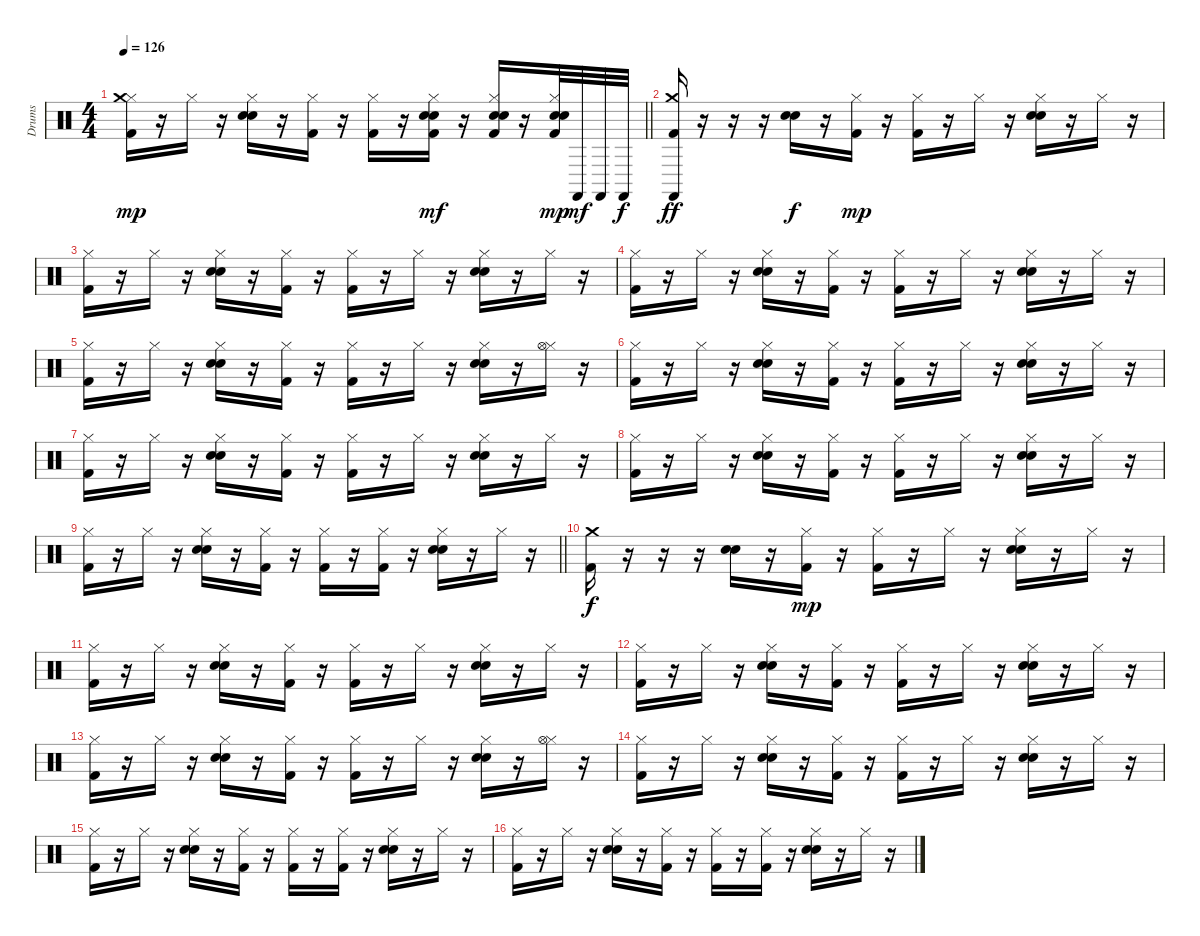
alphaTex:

\track ("Drums" "Drums") {instrument percussion}
\staff {score}
\articulation defaults
\ts (4 4)
\tempo 126
\clef neutral
\barLineRight lightlight
\ks c
("Hi-Hat (closed)" "Crash medium (hit)" "Kick (hit) 2").16{dy mp} r.16 "Hi-Hat (closed)".16 r.16 ("Hi-Hat (closed)" "Snare (hit) 2" "Electric Snare (hit)").16 r.16 ("Hi-Hat (closed)" "Kick (hit) 2").16 r.16 ("Hi-Hat (closed)" "Kick (hit) 2").16 r.16 ("Hi-Hat (closed)" "Snare (hit) 2" "Electric Snare (hit)" "Kick (hit) 2").16{dy mf} r.16 ("Hi-Hat (closed)" "Snare (hit) 2" "Electric Snare (hit)" "Kick (hit) 2").16 r.16 ("Hi-Hat (closed)" "Snare (hit) 2" "Electric Snare (hit)" "Kick (hit) 2").32{dy mp} "Castanets (hit)".32{dy mf} "Castanets (hit)".32 "Castanets (hit)".32{dy f} |
\section ("" "")
("Crash medium (hit)" "Castanets (hit)" "Kick (hit) 2").16{dy ff} r.16 r.16 r.16 ("Snare (hit) 2" "Electric Snare (hit)").16{dy f} r.16 ("Hi-Hat (closed)" "Kick (hit) 2").16{dy mp} r.16 ("Hi-Hat (closed)" "Kick (hit) 2").16 r.16 "Hi-Hat (closed)".16 r.16 ("Hi-Hat (closed)" "Snare (hit) 2" "Electric Snare (hit)").16 r.16 "Hi-Hat (closed)".16 r.16 |
("Hi-Hat (closed)" "Kick (hit) 2").16 r.16 "Hi-Hat (closed)".16 r.16 ("Hi-Hat (closed)" "Snare (hit) 2" "Electric Snare (hit)").16 r.16 ("Hi-Hat (closed)" "Kick (hit) 2").16 r.16 ("Hi-Hat (closed)" "Kick (hit) 2").16 r.16 "Hi-Hat (closed)".16 r.16 ("Hi-Hat (closed)" "Snare (hit) 2" "Electric Snare (hit)").16 r.16 "Hi-Hat (closed)".16 r.16 |
("Hi-Hat (closed)" "Kick (hit) 2").16 r.16 "Hi-Hat (closed)".16 r.16 ("Hi-Hat (closed)" "Snare (hit) 2" "Electric Snare (hit)").16 r.16 ("Hi-Hat (closed)" "Kick (hit) 2").16 r.16 ("Hi-Hat (closed)" "Kick (hit) 2").16 r.16 "Hi-Hat (closed)".16 r.16 ("Hi-Hat (closed)" "Snare (hit) 2" "Electric Snare (hit)").16 r.16 "Hi-Hat (closed)".16 r.16 |
("Hi-Hat (closed)" "Kick (hit) 2").16 r.16 "Hi-Hat (closed)".16 r.16 ("Hi-Hat (closed)" "Snare (hit) 2" "Electric Snare (hit)").16 r.16 ("Hi-Hat (closed)" "Kick (hit) 2").16 r.16 ("Hi-Hat (closed)" "Kick (hit) 2").16 r.16 "Hi-Hat (closed)".16 r.16 ("Hi-Hat (closed)" "Snare (hit) 2" "Electric Snare (hit)").16 r.16 ("Hi-Hat (closed)" "Hi-Hat (open)").16 r.16 |
("Hi-Hat (closed)" "Kick (hit) 2").16 r.16 "Hi-Hat (closed)".16 r.16 ("Hi-Hat (closed)" "Snare (hit) 2" "Electric Snare (hit)").16 r.16 ("Hi-Hat (closed)" "Kick (hit) 2").16 r.16 ("Hi-Hat (closed)" "Kick (hit) 2").16 r.16 "Hi-Hat (closed)".16 r.16 ("Hi-Hat (closed)" "Snare (hit) 2" "Electric Snare (hit)").16 r.16 "Hi-Hat (closed)".16 r.16 |
("Hi-Hat (closed)" "Kick (hit) 2").16 r.16 "Hi-Hat (closed)".16 r.16 ("Hi-Hat (closed)" "Snare (hit) 2" "Electric Snare (hit)").16 r.16 ("Hi-Hat (closed)" "Kick (hit) 2").16 r.16 ("Hi-Hat (closed)" "Kick (hit) 2").16 r.16 "Hi-Hat (closed)".16 r.16 ("Hi-Hat (closed)" "Snare (hit) 2" "Electric Snare (hit)").16 r.16 "Hi-Hat (closed)".16 r.16 |
("Hi-Hat (closed)" "Kick (hit) 2").16 r.16 "Hi-Hat (closed)".16 r.16 ("Hi-Hat (closed)" "Snare (hit) 2" "Electric Snare (hit)").16 r.16 ("Hi-Hat (closed)" "Kick (hit) 2").16 r.16 ("Hi-Hat (closed)" "Kick (hit) 2").16 r.16 "Hi-Hat (closed)".16 r.16 ("Hi-Hat (closed)" "Snare (hit) 2" "Electric Snare (hit)").16 r.16 "Hi-Hat (closed)".16 r.16 |
\barLineRight lightlight
("Hi-Hat (closed)" "Kick (hit) 2").16 r.16 "Hi-Hat (closed)".16 r.16 ("Hi-Hat (closed)" "Snare (hit) 2" "Electric Snare (hit)").16 r.16 ("Hi-Hat (closed)" "Kick (hit) 2").16 r.16 ("Hi-Hat (closed)" "Kick (hit) 2").16 r.16 ("Hi-Hat (closed)" "Kick (hit) 2").16 r.16 ("Hi-Hat (closed)" "Snare (hit) 2" "Electric Snare (hit)").16 r.16 "Hi-Hat (closed)".16 r.16 |
\section ("" "")
("Crash medium (hit)" "Kick (hit) 2").16{dy f} r.16 r.16 r.16 ("Snare (hit) 2" "Electric Snare (hit)").16 r.16 ("Hi-Hat (closed)" "Kick (hit) 2").16{dy mp} r.16 ("Hi-Hat (closed)" "Kick (hit) 2").16 r.16 "Hi-Hat (closed)".16 r.16 ("Hi-Hat (closed)" "Snare (hit) 2" "Electric Snare (hit)").16 r.16 "Hi-Hat (closed)".16 r.16 |
("Hi-Hat (closed)" "Kick (hit) 2").16 r.16 "Hi-Hat (closed)".16 r.16 ("Hi-Hat (closed)" "Snare (hit) 2" "Electric Snare (hit)").16 r.16 ("Hi-Hat (closed)" "Kick (hit) 2").16 r.16 ("Hi-Hat (closed)" "Kick (hit) 2").16 r.16 "Hi-Hat (closed)".16 r.16 ("Hi-Hat (closed)" "Snare (hit) 2" "Electric Snare (hit)").16 r.16 "Hi-Hat (closed)".16 r.16 |
("Hi-Hat (closed)" "Kick (hit) 2").16 r.16 "Hi-Hat (closed)".16 r.16 ("Hi-Hat (closed)" "Snare (hit) 2" "Electric Snare (hit)").16 r.16 ("Hi-Hat (closed)" "Kick (hit) 2").16 r.16 ("Hi-Hat (closed)" "Kick (hit) 2").16 r.16 "Hi-Hat (closed)".16 r.16 ("Hi-Hat (closed)" "Snare (hit) 2" "Electric Snare (hit)").16 r.16 "Hi-Hat (closed)".16 r.16 |
("Hi-Hat (closed)" "Kick (hit) 2").16 r.16 "Hi-Hat (closed)".16 r.16 ("Hi-Hat (closed)" "Snare (hit) 2" "Electric Snare (hit)").16 r.16 ("Hi-Hat (closed)" "Kick (hit) 2").16 r.16 ("Hi-Hat (closed)" "Kick (hit) 2").16 r.16 "Hi-Hat (closed)".16 r.16 ("Hi-Hat (closed)" "Snare (hit) 2" "Electric Snare (hit)").16 r.16 ("Hi-Hat (closed)" "Hi-Hat (open)").16 r.16 |
("Hi-Hat (closed)" "Kick (hit) 2").16 r.16 "Hi-Hat (closed)".16 r.16 ("Hi-Hat (closed)" "Snare (hit) 2" "Electric Snare (hit)").16 r.16 ("Hi-Hat (closed)" "Kick (hit) 2").16 r.16 ("Hi-Hat (closed)" "Kick (hit) 2").16 r.16 "Hi-Hat (closed)".16 r.16 ("Hi-Hat (closed)" "Snare (hit) 2" "Electric Snare (hit)").16 r.16 "Hi-Hat (closed)".16 r.16 |
("Hi-Hat (closed)" "Kick (hit) 2").16 r.16 "Hi-Hat (closed)".16 r.16 ("Hi-Hat (closed)" "Snare (hit) 2" "Electric Snare (hit)").16 r.16 ("Hi-Hat (closed)" "Kick (hit) 2").16 r.16 ("Hi-Hat (closed)" "Kick (hit) 2").16 r.16 ("Hi-Hat (closed)" "Kick (hit) 2").16 r.16 ("Hi-Hat (closed)" "Snare (hit) 2" "Electric Snare (hit)").16 r.16 "Hi-Hat (closed)".16 r.16 |
("Hi-Hat (closed)" "Kick (hit) 2").16 r.16 "Hi-Hat (closed)".16 r.16 ("Hi-Hat (closed)" "Snare (hit) 2" "Electric Snare (hit)").16 r.16 ("Hi-Hat (closed)" "Kick (hit) 2").16 r.16 ("Hi-Hat (closed)" "Kick (hit) 2").16 r.16 ("Hi-Hat (closed)" "Kick (hit) 2").16 r.16 ("Hi-Hat (closed)" "Snare (hit) 2" "Electric Snare (hit)").16 r.16 "Hi-Hat (closed)".16 r.16
